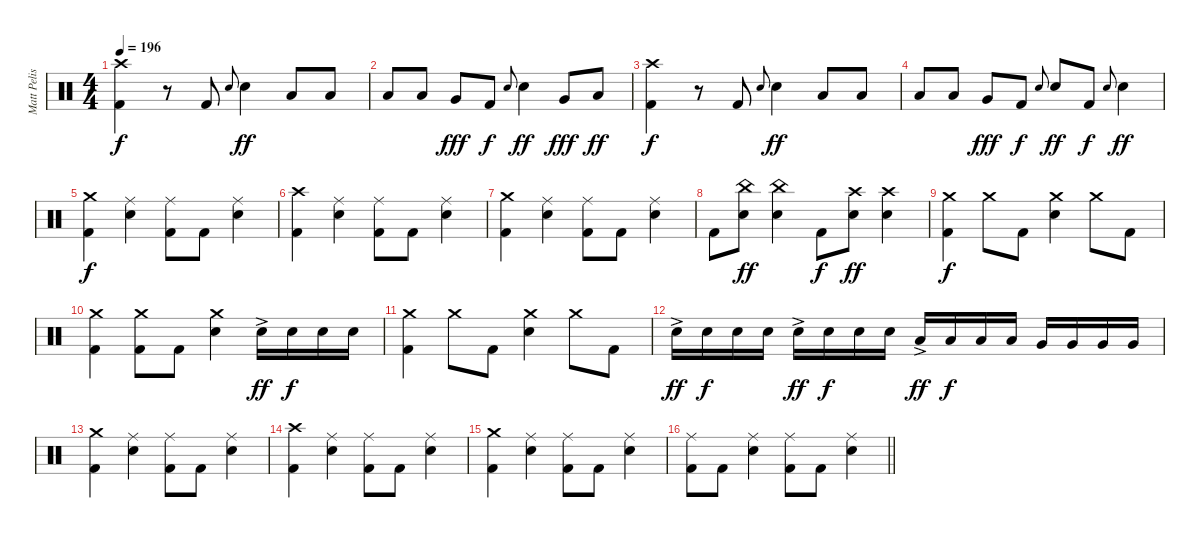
\track ("Matt Pelissier" "Matt Pelis") {instrument percussion}
\staff {score}
\articulation defaults
\ts (4 4)
\tempo 196
\clef neutral
\ks c
("Crash high (hit)" "Kick (hit) 2").4{dy f} r.8 "Kick (hit) 2".8 "Snare (hit) 2".8{gr onbeat} "Snare (hit) 2".4{dy ff} "Low Tom (hit)".8 "Low Tom (hit)".8 |
"Low Tom (hit)".8 "Low Tom (hit)".8 "Very Low Tom (hit)".8{dy fff} "Kick (hit) 2".8{dy f} "Snare (hit) 2".8{gr onbeat} "Snare (hit) 2".4{dy ff} "Very Low Tom (hit)".8{dy fff} "Low Tom (hit)".8{dy ff} |
("Crash high (hit)" "Kick (hit) 2").4{dy f} r.8 "Kick (hit) 2".8 "Snare (hit) 2".8{gr onbeat} "Snare (hit) 2".4{dy ff} "Low Tom (hit)".8 "Low Tom (hit)".8 |
"Low Tom (hit)".8 "Low Tom (hit)".8 "Very Low Tom (hit)".8{dy fff} "Kick (hit) 2".8{dy f} "Snare (hit) 2".8{gr onbeat} "Snare (hit) 2".8{dy ff} "Kick (hit) 2".8{dy f} "Snare (hit) 2".8{gr onbeat} "Snare (hit) 2".4{dy ff} |
("Crash medium (hit)" "Kick (hit) 2").4{dy f} ("Ride (middle)" "Snare (hit) 2").4 ("Ride (middle)" "Kick (hit) 2").8 "Kick (hit) 2".8 ("Ride (middle)" "Snare (hit) 2").4 |
("Crash high (hit)" "Kick (hit) 2").4 ("Ride (middle)" "Snare (hit) 2").4 ("Ride (middle)" "Kick (hit) 2").8 "Kick (hit) 2".8 ("Ride (middle)" "Snare (hit) 2").4 |
("Crash medium (hit)" "Kick (hit) 2").4 ("Ride (middle)" "Snare (hit) 2").4 ("Ride (middle)" "Kick (hit) 2").8 "Kick (hit) 2".8 ("Ride (middle)" "Snare (hit) 2").4 |
"Kick (hit) 2".8 ("China (hit)" "Snare (hit) 2").8{dy ff} ("China (hit)" "Snare (hit) 2").4 "Kick (hit) 2".8{dy f} ("Crash high (hit)" "Snare (hit) 2").8{dy ff} ("Crash high (hit)" "Snare (hit) 2").4 |
("Crash medium (hit)" "Kick (hit) 2").4{dy f} "Crash medium (hit)".8 "Kick (hit) 2".8 ("Crash medium (hit)" "Snare (hit) 2").4 "Crash medium (hit)".8 "Kick (hit) 2".8 |
("Crash medium (hit)" "Kick (hit) 2").4 ("Crash medium (hit)" "Kick (hit) 2").8 "Kick (hit) 2".8 ("Crash medium (hit)" "Snare (hit) 2").4 "Snare (hit) 2"{ac}.16{dy ff} "Snare (hit) 2".16{dy f} "Snare (hit) 2".16 "Snare (hit) 2".16 |
("Crash medium (hit)" "Kick (hit) 2").4 "Crash medium (hit)".8 "Kick (hit) 2".8 ("Crash medium (hit)" "Snare (hit) 2").4 "Crash medium (hit)".8 "Kick (hit) 2".8 |
"Snare (hit) 2"{ac}.16{dy ff} "Snare (hit) 2".16{dy f} "Snare (hit) 2".16 "Snare (hit) 2".16 "Snare (hit) 2"{ac}.16{dy ff} "Snare (hit) 2".16{dy f} "Snare (hit) 2".16 "Snare (hit) 2".16 "Low Tom (hit)"{ac}.16{dy ff} "Low Tom (hit)".16{dy f} "Low Tom (hit)".16 "Low Tom (hit)".16 "Very Low Tom (hit)".16 "Very Low Tom (hit)".16 "Very Low Tom (hit)".16 "Very Low Tom (hit)".16 |
("Crash medium (hit)" "Kick (hit) 2").4 ("Ride (middle)" "Snare (hit) 2").4 ("Ride (middle)" "Kick (hit) 2").8 "Kick (hit) 2".8 ("Ride (middle)" "Snare (hit) 2").4 |
("Crash high (hit)" "Kick (hit) 2").4 ("Ride (middle)" "Snare (hit) 2").4 ("Ride (middle)" "Kick (hit) 2").8 "Kick (hit) 2".8 ("Ride (middle)" "Snare (hit) 2").4 |
("Crash medium (hit)" "Kick (hit) 2").4 ("Ride (middle)" "Snare (hit) 2").4 ("Ride (middle)" "Kick (hit) 2").8 "Kick (hit) 2".8 ("Ride (middle)" "Snare (hit) 2").4 |
\barLineRight lightlight
("Ride (middle)" "Kick (hit) 2").8 "Kick (hit) 2".8 ("Ride (middle)" "Snare (hit) 2").4 ("Ride (middle)" "Kick (hit) 2").8 "Kick (hit) 2".8 ("Ride (middle)" "Snare (hit) 2").4
